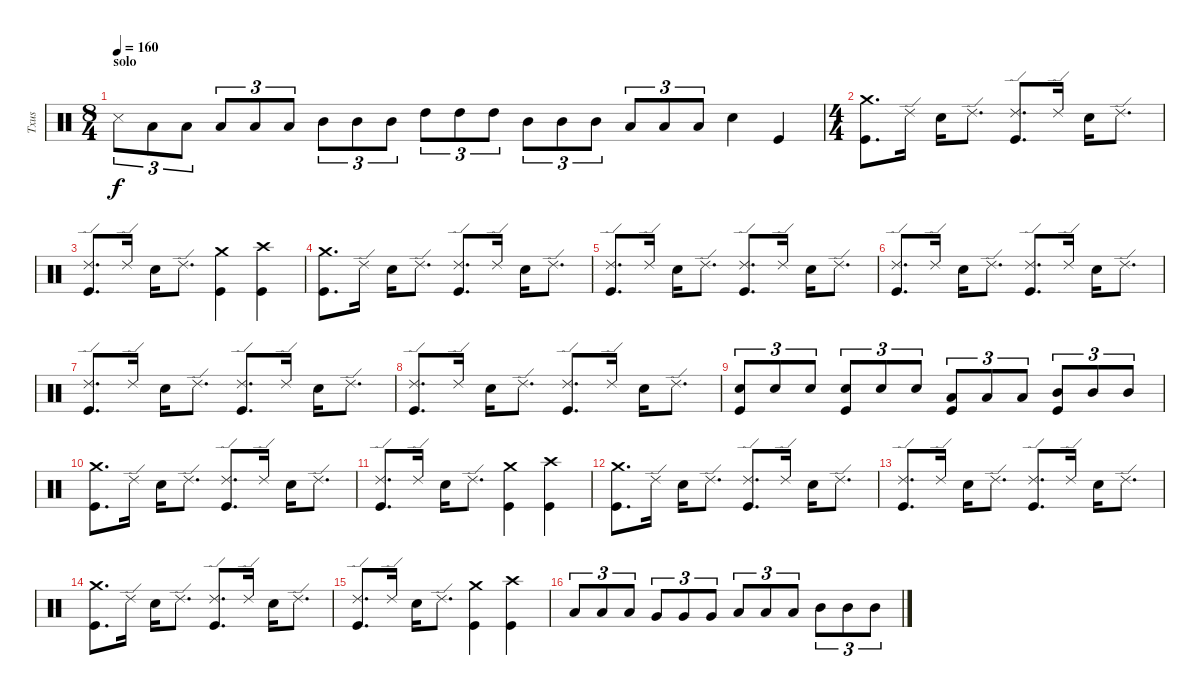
\track ("Txus" "Txus") {instrument percussion}
\staff {score}
\articulation defaults
\ts (8 4)
\section ("" "solo")
\tempo 160
\clef neutral
\ks c "Snare (side stick) 3".8{tu (3 2) dy f balance 12} "Low Floor Tom (hit)".8{tu (3 2)} "Low Floor Tom (hit)".8{tu (3 2)} "Low Tom (hit)".8{tu (3 2)} "Low Tom (hit)".8{tu (3 2) balance 10} "Low Tom (hit)".8{tu (3 2)} "Mid Tom (hit)".8{tu (3 2)} "Mid Tom (hit)".8{tu (3 2)} "Mid Tom (hit)".8{tu (3 2) balance 6} "High Tom (hit)".8{tu (3 2)} "High Tom (hit)".8{tu (3 2)} "High Tom (hit)".8{tu (3 2)} "Mid Tom (hit)".8{tu (3 2) balance 4} "Mid Tom (hit)".8{tu (3 2)} "Mid Tom (hit)".8{tu (3 2)} "Low Tom (hit)".8{tu (3 2)} "Low Tom (hit)".8{tu (3 2) balance 2} "Low Tom (hit)".8{tu (3 2)} "Electric Snare (hit)".4{balance 8} "Kick (hit)".4
|
\ts (4 4)
("Crash medium (hit)" "Kick (hit)").8{d} "Ride (edge) 2".16 "Electric Snare (hit)".16 "Ride (edge) 2".8{d} ("Ride (edge) 2" "Kick (hit)").8{d} "Ride (edge) 2".16 "Electric Snare (hit)".16 "Ride (edge) 2".8{d} |
("Ride (edge) 2" "Kick (hit)").8{d} "Ride (edge) 2".16 "Electric Snare (hit)".16 "Ride (edge) 2".8{d} ("Crash medium (hit)" "Kick (hit)").4 ("Crash high (hit)" "Kick (hit)").4 |
("Crash medium (hit)" "Kick (hit)").8{d} "Ride (edge) 2".16 "Electric Snare (hit)".16 "Ride (edge) 2".8{d} ("Ride (edge) 2" "Kick (hit)").8{d} "Ride (edge) 2".16 "Electric Snare (hit)".16 "Ride (edge) 2".8{d} |
("Ride (edge) 2" "Kick (hit)").8{d} "Ride (edge) 2".16 "Electric Snare (hit)".16 "Ride (edge) 2".8{d} ("Ride (edge) 2" "Kick (hit)").8{d} "Ride (edge) 2".16 "Electric Snare (hit)".16 "Ride (edge) 2".8{d} |
("Ride (edge) 2" "Kick (hit)").8{d} "Ride (edge) 2".16 "Electric Snare (hit)".16 "Ride (edge) 2".8{d} ("Ride (edge) 2" "Kick (hit)").8{d} "Ride (edge) 2".16 "Electric Snare (hit)".16 "Ride (edge) 2".8{d} |
("Ride (edge) 2" "Kick (hit)").8{d} "Ride (edge) 2".16 "Electric Snare (hit)".16 "Ride (edge) 2".8{d} ("Ride (edge) 2" "Kick (hit)").8{d} "Ride (edge) 2".16 "Electric Snare (hit)".16 "Ride (edge) 2".8{d} |
("Ride (edge) 2" "Kick (hit)").8{d} "Ride (edge) 2".16 "Electric Snare (hit)".16 "Ride (edge) 2".8{d} ("Ride (edge) 2" "Kick (hit)").8{d} "Ride (edge) 2".16 "Electric Snare (hit)".16 "Ride (edge) 2".8{d} |
("Electric Snare (hit)" "Kick (hit)").8{tu (3 2)} "Electric Snare (hit)".8{tu (3 2)} "Electric Snare (hit)".8{tu (3 2)} ("Electric Snare (hit)" "Kick (hit)").8{tu (3 2)} "Electric Snare (hit)".8{tu (3 2)} "Electric Snare (hit)".8{tu (3 2)} ("Low Tom (hit)" "Kick (hit)").8{tu (3 2)} "Low Tom (hit)".8{tu (3 2)} "Low Tom (hit)".8{tu (3 2)} ("Mid Tom (hit)" "Kick (hit)").8{tu (3 2)} "Mid Tom (hit)".8{tu (3 2)} "Mid Tom (hit)".8{tu (3 2)} |
("Crash medium (hit)" "Kick (hit)").8{d} "Ride (edge) 2".16 "Electric Snare (hit)".16 "Ride (edge) 2".8{d} ("Ride (edge) 2" "Kick (hit)").8{d} "Ride (edge) 2".16 "Electric Snare (hit)".16 "Ride (edge) 2".8{d} |
("Ride (edge) 2" "Kick (hit)").8{d} "Ride (edge) 2".16 "Electric Snare (hit)".16 "Ride (edge) 2".8{d} ("Crash medium (hit)" "Kick (hit)").4 ("Crash high (hit)" "Kick (hit)").4 |
("Crash medium (hit)" "Kick (hit)").8{d} "Ride (edge) 2".16 "Electric Snare (hit)".16 "Ride (edge) 2".8{d} ("Ride (edge) 2" "Kick (hit)").8{d} "Ride (edge) 2".16 "Electric Snare (hit)".16 "Ride (edge) 2".8{d} |
("Ride (edge) 2" "Kick (hit)").8{d} "Ride (edge) 2".16 "Electric Snare (hit)".16 "Ride (edge) 2".8{d} ("Ride (edge) 2" "Kick (hit)").8{d} "Ride (edge) 2".16 "Electric Snare (hit)".16 "Ride (edge) 2".8{d} |
("Crash medium (hit)" "Kick (hit)").8{d} "Ride (edge) 2".16 "Electric Snare (hit)".16 "Ride (edge) 2".8{d} ("Ride (edge) 2" "Kick (hit)").8{d} "Ride (edge) 2".16 "Electric Snare (hit)".16 "Ride (edge) 2".8{d} |
("Ride (edge) 2" "Kick (hit)").8{d} "Ride (edge) 2".16 "Electric Snare (hit)".16 "Ride (edge) 2".8{d} ("Crash medium (hit)" "Kick (hit)").4 ("Crash high (hit)" "Kick (hit)").4 |
"Low Floor Tom (hit)".8{tu (3 2)} "Low Floor Tom (hit)".8{tu (3 2)} "Low Floor Tom (hit)".8{tu (3 2)} "Very Low Tom (hit)".8{tu (3 2)} "Very Low Tom (hit)".8{tu (3 2)} "Very Low Tom (hit)".8{tu (3 2)} "Low Tom (hit)".8{tu (3 2)} "Low Tom (hit)".8{tu (3 2)} "Low Tom (hit)".8{tu (3 2)} "Mid Tom (hit)".8{tu (3 2)} "Mid Tom (hit)".8{tu (3 2)} "Mid Tom (hit)".8{tu (3 2)}
